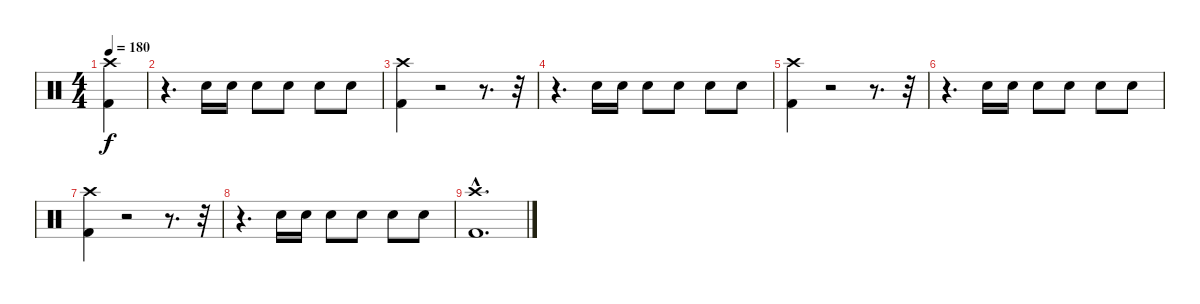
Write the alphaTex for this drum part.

\track "" {instrument percussion}
\staff {score}
\articulation defaults
\ts (4 4)
\tempo 180
\clef neutral
\ks c
("Kick (hit) 2" "Crash high (hit)").4{dy f} |
r.4{d} "Snare (hit) 2".16 "Snare (hit) 2".16 "Snare (hit) 2".8 "Snare (hit) 2".8 "Snare (hit) 2".8 "Snare (hit) 2".8 |
("Crash high (hit)" "Kick (hit) 2").4 r.2 r.8{d} r.32 |
r.4{d} "Snare (hit) 2".16 "Snare (hit) 2".16 "Snare (hit) 2".8 "Snare (hit) 2".8 "Snare (hit) 2".8 "Snare (hit) 2".8 |
("Crash high (hit)" "Kick (hit) 2").4 r.2 r.8{d} r.32 |
r.4{d} "Snare (hit) 2".16 "Snare (hit) 2".16 "Snare (hit) 2".8 "Snare (hit) 2".8 "Snare (hit) 2".8 "Snare (hit) 2".8 |
("Crash high (hit)" "Kick (hit) 2").4 r.2 r.8{d} r.32 |
r.4{d} "Snare (hit) 2".16 "Snare (hit) 2".16 "Snare (hit) 2".8 "Snare (hit) 2".8 "Snare (hit) 2".8 "Snare (hit) 2".8 |
("Crash high (hit)"{hac} "Kick (hit) 2"{hac}).1{d}
